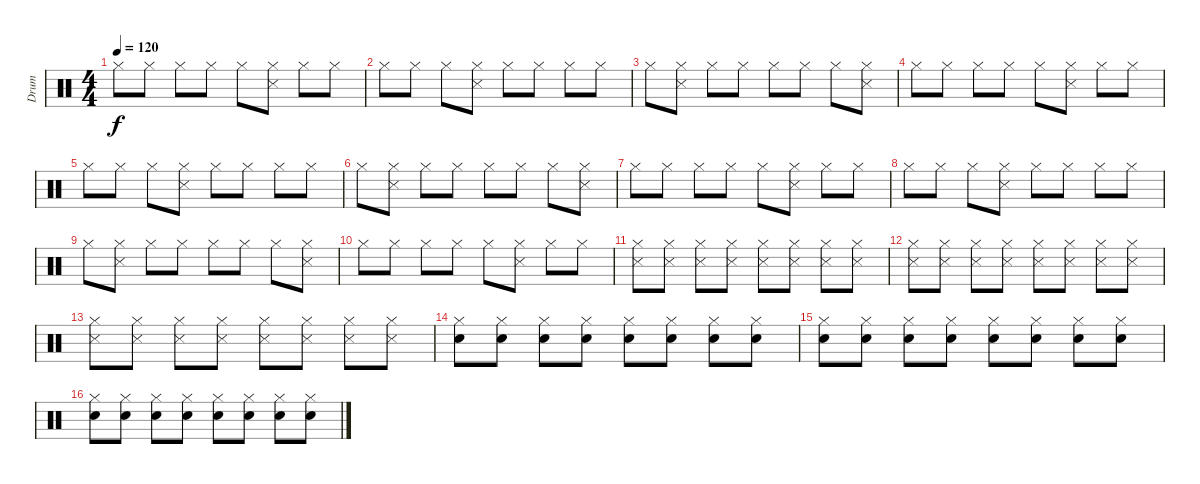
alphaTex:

\track ("Drum" "Drum") {instrument percussion}
\staff {score}
\articulation defaults
\ts (4 4)
\tempo 120
\clef neutral
\ks c "Hi-Hat (closed)".8{dy f} "Hi-Hat (closed)".8 "Hi-Hat (closed)".8 "Hi-Hat (closed)".8 "Hi-Hat (closed)".8
("Hi-Hat (closed)" "Snare (side stick) 3").8 "Hi-Hat (closed)".8 "Hi-Hat (closed)".8 |
"Hi-Hat (closed)".8 "Hi-Hat (closed)".8 "Hi-Hat (closed)".8 ("Hi-Hat (closed)" "Snare (side stick) 3").8 "Hi-Hat (closed)".8 "Hi-Hat (closed)".8 "Hi-Hat (closed)".8 "Hi-Hat (closed)".8 |
"Hi-Hat (closed)".8 ("Hi-Hat (closed)" "Snare (side stick) 3").8 "Hi-Hat (closed)".8 "Hi-Hat (closed)".8 "Hi-Hat (closed)".8 "Hi-Hat (closed)".8 "Hi-Hat (closed)".8 ("Hi-Hat (closed)" "Snare (side stick) 3").8 |
"Hi-Hat (closed)".8 "Hi-Hat (closed)".8 "Hi-Hat (closed)".8 "Hi-Hat (closed)".8 "Hi-Hat (closed)".8 ("Hi-Hat (closed)" "Snare (side stick) 3").8 "Hi-Hat (closed)".8 "Hi-Hat (closed)".8 |
"Hi-Hat (closed)".8 "Hi-Hat (closed)".8 "Hi-Hat (closed)".8 ("Hi-Hat (closed)" "Snare (side stick) 3").8 "Hi-Hat (closed)".8 "Hi-Hat (closed)".8 "Hi-Hat (closed)".8 "Hi-Hat (closed)".8 |
"Hi-Hat (closed)".8 ("Hi-Hat (closed)" "Snare (side stick) 3").8 "Hi-Hat (closed)".8 "Hi-Hat (closed)".8 "Hi-Hat (closed)".8 "Hi-Hat (closed)".8 "Hi-Hat (closed)".8 ("Hi-Hat (closed)" "Snare (side stick) 3").8 |
"Hi-Hat (closed)".8 "Hi-Hat (closed)".8 "Hi-Hat (closed)".8 "Hi-Hat (closed)".8 "Hi-Hat (closed)".8 ("Hi-Hat (closed)" "Snare (side stick) 3").8 "Hi-Hat (closed)".8 "Hi-Hat (closed)".8 |
"Hi-Hat (closed)".8 "Hi-Hat (closed)".8 "Hi-Hat (closed)".8 ("Hi-Hat (closed)" "Snare (side stick) 3").8 "Hi-Hat (closed)".8 "Hi-Hat (closed)".8 "Hi-Hat (closed)".8 "Hi-Hat (closed)".8 |
"Hi-Hat (closed)".8 ("Hi-Hat (closed)" "Snare (side stick) 3").8 "Hi-Hat (closed)".8 "Hi-Hat (closed)".8 "Hi-Hat (closed)".8 "Hi-Hat (closed)".8 "Hi-Hat (closed)".8 ("Hi-Hat (closed)" "Snare (side stick) 3").8 |
"Hi-Hat (closed)".8 "Hi-Hat (closed)".8 "Hi-Hat (closed)".8 "Hi-Hat (closed)".8 "Hi-Hat (closed)".8 ("Hi-Hat (closed)" "Snare (side stick) 3").8 "Hi-Hat (closed)".8 "Hi-Hat (closed)".8 |
("Hi-Hat (closed)" "Snare (side stick) 3").8 ("Hi-Hat (closed)" "Snare (side stick) 3").8 ("Hi-Hat (closed)" "Snare (side stick) 3").8 ("Hi-Hat (closed)" "Snare (side stick) 3").8 ("Hi-Hat (closed)" "Snare (side stick) 3").8 ("Hi-Hat (closed)" "Snare (side stick) 3").8 ("Hi-Hat (closed)" "Snare (side stick) 3").8 ("Hi-Hat (closed)" "Snare (side stick) 3").8 |
("Hi-Hat (closed)" "Snare (side stick) 3").8 ("Hi-Hat (closed)" "Snare (side stick) 3").8 ("Hi-Hat (closed)" "Snare (side stick) 3").8 ("Hi-Hat (closed)" "Snare (side stick) 3").8 ("Hi-Hat (closed)" "Snare (side stick) 3").8 ("Hi-Hat (closed)" "Snare (side stick) 3").8 ("Hi-Hat (closed)" "Snare (side stick) 3").8 ("Hi-Hat (closed)" "Snare (side stick) 3").8 |
("Hi-Hat (closed)" "Snare (side stick) 3").8 ("Hi-Hat (closed)" "Snare (side stick) 3").8 ("Hi-Hat (closed)" "Snare (side stick) 3").8 ("Hi-Hat (closed)" "Snare (side stick) 3").8 ("Hi-Hat (closed)" "Snare (side stick) 3").8 ("Hi-Hat (closed)" "Snare (side stick) 3").8 ("Hi-Hat (closed)" "Snare (side stick) 3").8 ("Hi-Hat (closed)" "Snare (side stick) 3").8 |
("Hi-Hat (closed)" "Electric Snare (hit)").8 ("Hi-Hat (closed)" "Electric Snare (hit)").8 ("Hi-Hat (closed)" "Electric Snare (hit)").8 ("Hi-Hat (closed)" "Electric Snare (hit)").8 ("Hi-Hat (closed)" "Electric Snare (hit)").8 ("Hi-Hat (closed)" "Electric Snare (hit)").8 ("Hi-Hat (closed)" "Electric Snare (hit)").8 ("Hi-Hat (closed)" "Electric Snare (hit)").8 |
("Hi-Hat (closed)" "Electric Snare (hit)").8 ("Hi-Hat (closed)" "Electric Snare (hit)").8 ("Hi-Hat (closed)" "Electric Snare (hit)").8 ("Hi-Hat (closed)" "Electric Snare (hit)").8 ("Hi-Hat (closed)" "Electric Snare (hit)").8 ("Hi-Hat (closed)" "Electric Snare (hit)").8 ("Hi-Hat (closed)" "Electric Snare (hit)").8 ("Hi-Hat (closed)" "Electric Snare (hit)").8 |
("Hi-Hat (closed)" "Electric Snare (hit)").8 ("Hi-Hat (closed)" "Electric Snare (hit)").8 ("Hi-Hat (closed)" "Electric Snare (hit)").8 ("Hi-Hat (closed)" "Electric Snare (hit)").8 ("Hi-Hat (closed)" "Electric Snare (hit)").8 ("Hi-Hat (closed)" "Electric Snare (hit)").8 ("Hi-Hat (closed)" "Electric Snare (hit)").8 ("Hi-Hat (closed)" "Electric Snare (hit)").8
